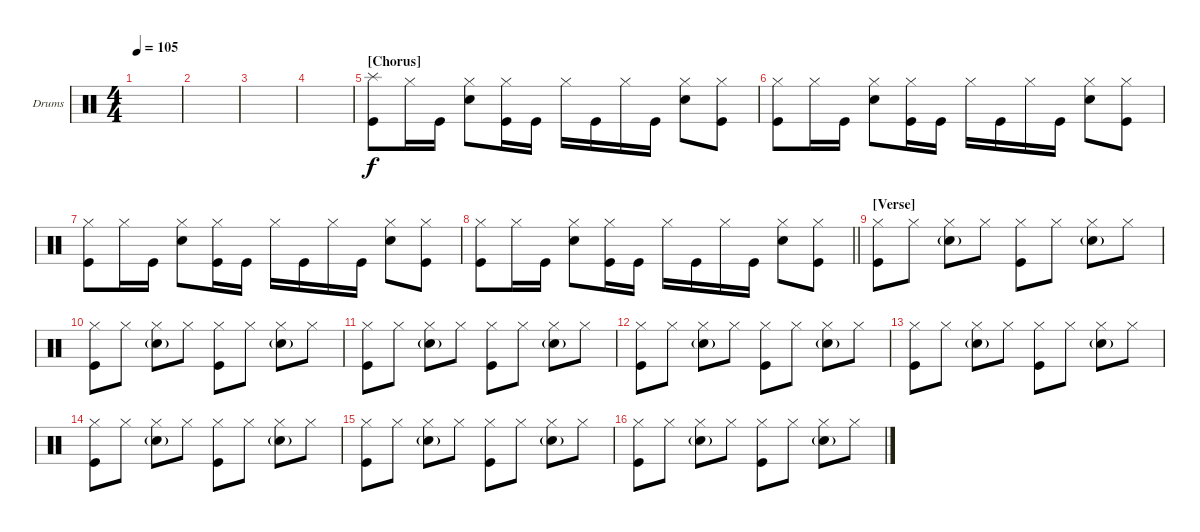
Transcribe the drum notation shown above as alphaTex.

\bracketExtendMode groupsimilarinstruments
\firstSystemTrackNameOrientation horizontal
\otherSystemsTrackNameOrientation horizontal
\track ("Drumkit" "Drums") {instrument percussion}
\staff {score}
\articulation defaults
\ts (4 4)
\tempo 105
\clef neutral
\ks c
|
|
|
|
\section ("" "[Chorus]")
("Kick (hit)" "Splash (hit)").8 "Hi-Hat (closed)".16 "Kick (hit)".16 ("Snare (hit) 2" "Hi-Hat (closed)").8 ("Kick (hit)" "Hi-Hat (closed)").16 "Kick (hit)".16 "Hi-Hat (closed)".16 "Kick (hit)".16 "Hi-Hat (closed)".16 "Kick (hit)".16 ("Snare (hit) 2" "Hi-Hat (closed)").8 ("Kick (hit)" "Hi-Hat (closed)").8 |
("Kick (hit)" "Hi-Hat (closed)").8 "Hi-Hat (closed)".16 "Kick (hit)".16 ("Snare (hit) 2" "Hi-Hat (closed)").8 ("Kick (hit)" "Hi-Hat (closed)").16 "Kick (hit)".16 "Hi-Hat (closed)".16 "Kick (hit)".16 "Hi-Hat (closed)".16 "Kick (hit)".16 ("Snare (hit) 2" "Hi-Hat (closed)").8 ("Kick (hit)" "Hi-Hat (closed)").8 |
("Kick (hit)" "Hi-Hat (closed)").8 "Hi-Hat (closed)".16 "Kick (hit)".16 ("Snare (hit) 2" "Hi-Hat (closed)").8 ("Kick (hit)" "Hi-Hat (closed)").16 "Kick (hit)".16 "Hi-Hat (closed)".16 "Kick (hit)".16 "Hi-Hat (closed)".16 "Kick (hit)".16 ("Snare (hit) 2" "Hi-Hat (closed)").8 ("Kick (hit)" "Hi-Hat (closed)").8 |
\barLineRight lightlight
("Kick (hit)" "Hi-Hat (closed)").8 "Hi-Hat (closed)".16 "Kick (hit)".16 ("Snare (hit) 2" "Hi-Hat (closed)").8 ("Kick (hit)" "Hi-Hat (closed)").16 "Kick (hit)".16 "Hi-Hat (closed)".16 "Kick (hit)".16 "Hi-Hat (closed)".16 "Kick (hit)".16 ("Snare (hit) 2" "Hi-Hat (closed)").8 ("Kick (hit)" "Hi-Hat (closed)").8 |
\section ("" "[Verse]")
("Hi-Hat (closed)" "Kick (hit)").8 "Hi-Hat (closed)".8 ("Hi-Hat (closed)" "Snare (hit) 2"{g}).8 "Hi-Hat (closed)".8 ("Hi-Hat (closed)" "Kick (hit)").8 "Hi-Hat (closed)".8 ("Hi-Hat (closed)" "Snare (hit) 2"{g}).8 "Hi-Hat (closed)".8 |
("Hi-Hat (closed)" "Kick (hit)").8 "Hi-Hat (closed)".8 ("Hi-Hat (closed)" "Snare (hit) 2"{g}).8 "Hi-Hat (closed)".8 ("Hi-Hat (closed)" "Kick (hit)").8 "Hi-Hat (closed)".8 ("Hi-Hat (closed)" "Snare (hit) 2"{g}).8 "Hi-Hat (closed)".8 |
("Hi-Hat (closed)" "Kick (hit)").8 "Hi-Hat (closed)".8 ("Hi-Hat (closed)" "Snare (hit) 2"{g}).8 "Hi-Hat (closed)".8 ("Hi-Hat (closed)" "Kick (hit)").8 "Hi-Hat (closed)".8 ("Hi-Hat (closed)" "Snare (hit) 2"{g}).8 "Hi-Hat (closed)".8 |
("Hi-Hat (closed)" "Kick (hit)").8 "Hi-Hat (closed)".8 ("Hi-Hat (closed)" "Snare (hit) 2"{g}).8 "Hi-Hat (closed)".8 ("Hi-Hat (closed)" "Kick (hit)").8 "Hi-Hat (closed)".8 ("Hi-Hat (closed)" "Snare (hit) 2"{g}).8 "Hi-Hat (closed)".8 |
("Hi-Hat (closed)" "Kick (hit)").8 "Hi-Hat (closed)".8 ("Hi-Hat (closed)" "Snare (hit) 2"{g}).8 "Hi-Hat (closed)".8 ("Hi-Hat (closed)" "Kick (hit)").8 "Hi-Hat (closed)".8 ("Hi-Hat (closed)" "Snare (hit) 2"{g}).8 "Hi-Hat (closed)".8 |
("Hi-Hat (closed)" "Kick (hit)").8 "Hi-Hat (closed)".8 ("Hi-Hat (closed)" "Snare (hit) 2"{g}).8 "Hi-Hat (closed)".8 ("Hi-Hat (closed)" "Kick (hit)").8 "Hi-Hat (closed)".8 ("Hi-Hat (closed)" "Snare (hit) 2"{g}).8 "Hi-Hat (closed)".8 |
("Hi-Hat (closed)" "Kick (hit)").8 "Hi-Hat (closed)".8 ("Hi-Hat (closed)" "Snare (hit) 2"{g}).8 "Hi-Hat (closed)".8 ("Hi-Hat (closed)" "Kick (hit)").8 "Hi-Hat (closed)".8 ("Hi-Hat (closed)" "Snare (hit) 2"{g}).8 "Hi-Hat (closed)".8 |
("Hi-Hat (closed)" "Kick (hit)").8 "Hi-Hat (closed)".8 ("Hi-Hat (closed)" "Snare (hit) 2"{g}).8 "Hi-Hat (closed)".8 ("Hi-Hat (closed)" "Kick (hit)").8 "Hi-Hat (closed)".8 ("Hi-Hat (closed)" "Snare (hit) 2"{g}).8 "Hi-Hat (closed)".8
